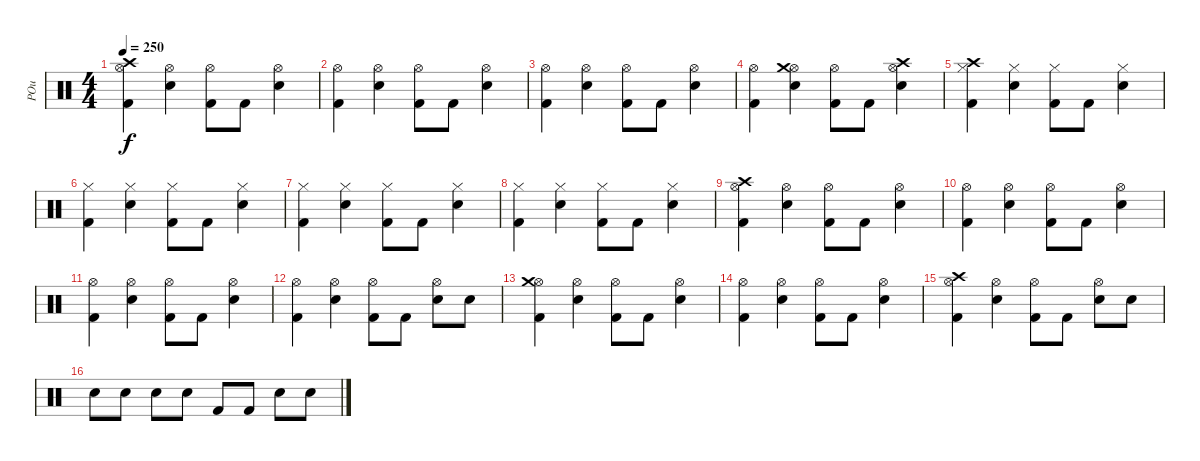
\track ("POu" "POu") {instrument percussion}
\staff {score}
\articulation defaults
\ts (4 4)
\tempo 250
\clef neutral
\ks c
("Kick (hit) 2" "Hi-Hat (open)" "Crash high (hit)").4{dy f} ("Electric Snare (hit)" "Hi-Hat (open)").4 ("Kick (hit) 2" "Hi-Hat (open)").8 "Kick (hit) 2".8 ("Electric Snare (hit)" "Hi-Hat (open)").4 |
("Kick (hit) 2" "Hi-Hat (open)").4 ("Electric Snare (hit)" "Hi-Hat (open)").4 ("Kick (hit) 2" "Hi-Hat (open)").8 "Kick (hit) 2".8 ("Electric Snare (hit)" "Hi-Hat (open)").4 |
("Kick (hit) 2" "Hi-Hat (open)").4 ("Electric Snare (hit)" "Hi-Hat (open)").4 ("Kick (hit) 2" "Hi-Hat (open)").8 "Kick (hit) 2".8 ("Electric Snare (hit)" "Hi-Hat (open)").4 |
("Kick (hit) 2" "Hi-Hat (open)").4 ("Electric Snare (hit)" "Hi-Hat (open)" "Crash medium (hit)").4 ("Kick (hit) 2" "Hi-Hat (open)").8 "Kick (hit) 2".8 ("Electric Snare (hit)" "Hi-Hat (open)" "Crash high (hit)").4 |
("Kick (hit) 2" "Hi-Hat (closed)" "Crash high (hit)").4 ("Electric Snare (hit)" "Hi-Hat (closed)").4 ("Kick (hit) 2" "Hi-Hat (closed)").8 "Kick (hit) 2".8 ("Electric Snare (hit)" "Hi-Hat (closed)").4 |
("Kick (hit) 2" "Hi-Hat (closed)").4 ("Electric Snare (hit)" "Hi-Hat (closed)").4 ("Kick (hit) 2" "Hi-Hat (closed)").8 "Kick (hit) 2".8 ("Electric Snare (hit)" "Hi-Hat (closed)").4 |
("Kick (hit) 2" "Hi-Hat (closed)").4 ("Electric Snare (hit)" "Hi-Hat (closed)").4 ("Kick (hit) 2" "Hi-Hat (closed)").8 "Kick (hit) 2".8 ("Electric Snare (hit)" "Hi-Hat (closed)").4 |
("Kick (hit) 2" "Hi-Hat (closed)").4 ("Electric Snare (hit)" "Hi-Hat (closed)").4 ("Kick (hit) 2" "Hi-Hat (closed)").8 "Kick (hit) 2".8 ("Electric Snare (hit)" "Hi-Hat (closed)").4 |
("Kick (hit) 2" "Hi-Hat (open)" "Crash high (hit)").4 ("Electric Snare (hit)" "Hi-Hat (open)").4 ("Kick (hit) 2" "Hi-Hat (open)").8 "Kick (hit) 2".8 ("Electric Snare (hit)" "Hi-Hat (open)").4 |
("Kick (hit) 2" "Hi-Hat (open)").4 ("Electric Snare (hit)" "Hi-Hat (open)").4 ("Kick (hit) 2" "Hi-Hat (open)").8 "Kick (hit) 2".8 ("Electric Snare (hit)" "Hi-Hat (open)").4 |
("Kick (hit) 2" "Hi-Hat (open)").4 ("Electric Snare (hit)" "Hi-Hat (open)").4 ("Kick (hit) 2" "Hi-Hat (open)").8 "Kick (hit) 2".8 ("Electric Snare (hit)" "Hi-Hat (open)").4 |
("Kick (hit) 2" "Hi-Hat (open)").4 ("Electric Snare (hit)" "Hi-Hat (open)").4 ("Kick (hit) 2" "Hi-Hat (open)").8 "Kick (hit) 2".8 ("Electric Snare (hit)" "Hi-Hat (open)").8 "Electric Snare (hit)".8 |
("Kick (hit) 2" "Hi-Hat (open)" "Crash medium (hit)").4 ("Electric Snare (hit)" "Hi-Hat (open)").4 ("Kick (hit) 2" "Hi-Hat (open)").8 "Kick (hit) 2".8 ("Electric Snare (hit)" "Hi-Hat (open)").4 |
("Kick (hit) 2" "Hi-Hat (open)").4 ("Electric Snare (hit)" "Hi-Hat (open)").4 ("Kick (hit) 2" "Hi-Hat (open)").8 "Kick (hit) 2".8 ("Electric Snare (hit)" "Hi-Hat (open)").4 |
("Kick (hit) 2" "Hi-Hat (open)" "Crash high (hit)").4 ("Electric Snare (hit)" "Hi-Hat (open)").4 ("Kick (hit) 2" "Hi-Hat (open)").8 "Kick (hit) 2".8 ("Electric Snare (hit)" "Hi-Hat (open)").8 "Electric Snare (hit)".8 |
"Electric Snare (hit)".8 "Electric Snare (hit)".8 "Electric Snare (hit)".8 "Electric Snare (hit)".8 "Kick (hit) 2".8 "Kick (hit) 2".8 "Electric Snare (hit)".8 "Electric Snare (hit)".8
